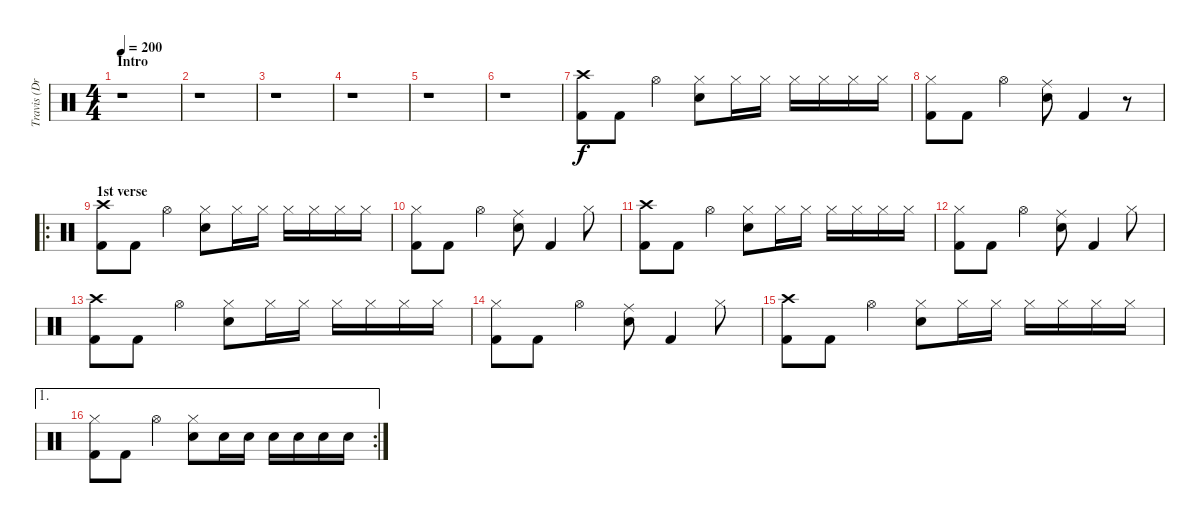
\track ("Travis (Drums)" "Travis (Dr") {instrument percussion}
\staff {score}
\articulation defaults
\ts (4 4)
\section ("" "Intro")
\tempo 200
\clef neutral
\ks c
r.1{dy f} |
r.1 |
r.1 |
r.1 |
r.1 |
r.1 |
("Crash high (hit)" "Kick (hit) 2").8 "Kick (hit) 2".8 "Hi-Hat (open)".4 ("Hi-Hat (closed)" "Electric Snare (hit)").8 "Hi-Hat (closed)".16 "Hi-Hat (closed)".16 "Hi-Hat (closed)".16 "Hi-Hat (closed)".16 "Hi-Hat (closed)".16 "Hi-Hat (closed)".16 |
("Hi-Hat (closed)" "Kick (hit) 2").8 "Kick (hit) 2".8 "Hi-Hat (open)".4 ("Ride (middle)" "Electric Snare (hit)").8 "Kick (hit) 2".4 r.8 |
\ro
\section ("" "1st verse")
("Crash high (hit)" "Kick (hit) 2").8 "Kick (hit) 2".8 "Hi-Hat (open)".4 ("Hi-Hat (closed)" "Electric Snare (hit)").8 "Hi-Hat (closed)".16 "Hi-Hat (closed)".16 "Hi-Hat (closed)".16 "Hi-Hat (closed)".16 "Hi-Hat (closed)".16 "Hi-Hat (closed)".16 |
("Hi-Hat (closed)" "Kick (hit) 2").8 "Kick (hit) 2".8 "Hi-Hat (open)".4 ("Ride (middle)" "Electric Snare (hit)").8 "Kick (hit) 2".4 "Hi-Hat (closed)".8 |
("Crash high (hit)" "Kick (hit) 2").8 "Kick (hit) 2".8 "Hi-Hat (open)".4 ("Hi-Hat (closed)" "Electric Snare (hit)").8 "Hi-Hat (closed)".16 "Hi-Hat (closed)".16 "Hi-Hat (closed)".16 "Hi-Hat (closed)".16 "Hi-Hat (closed)".16 "Hi-Hat (closed)".16 |
("Hi-Hat (closed)" "Kick (hit) 2").8 "Kick (hit) 2".8 "Hi-Hat (open)".4 ("Ride (middle)" "Electric Snare (hit)").8 "Kick (hit) 2".4 "Hi-Hat (closed)".8 |
("Crash high (hit)" "Kick (hit) 2").8 "Kick (hit) 2".8 "Hi-Hat (open)".4 ("Hi-Hat (closed)" "Electric Snare (hit)").8 "Hi-Hat (closed)".16 "Hi-Hat (closed)".16 "Hi-Hat (closed)".16 "Hi-Hat (closed)".16 "Hi-Hat (closed)".16 "Hi-Hat (closed)".16 |
("Hi-Hat (closed)" "Kick (hit) 2").8 "Kick (hit) 2".8 "Hi-Hat (open)".4 ("Ride (middle)" "Electric Snare (hit)").8 "Kick (hit) 2".4 "Hi-Hat (closed)".8 |
("Crash high (hit)" "Kick (hit) 2").8 "Kick (hit) 2".8 "Hi-Hat (open)".4 ("Hi-Hat (closed)" "Electric Snare (hit)").8 "Hi-Hat (closed)".16 "Hi-Hat (closed)".16 "Hi-Hat (closed)".16 "Hi-Hat (closed)".16 "Hi-Hat (closed)".16 "Hi-Hat (closed)".16 |
\ae 1
\rc 2
("Hi-Hat (closed)" "Kick (hit) 2").8 "Kick (hit) 2".8 "Hi-Hat (open)".4 ("Hi-Hat (closed)" "Electric Snare (hit)").8 "Electric Snare (hit)".16 "Electric Snare (hit)".16 "Electric Snare (hit)".16 "Electric Snare (hit)".16 "Electric Snare (hit)".16 "Electric Snare (hit)".16
